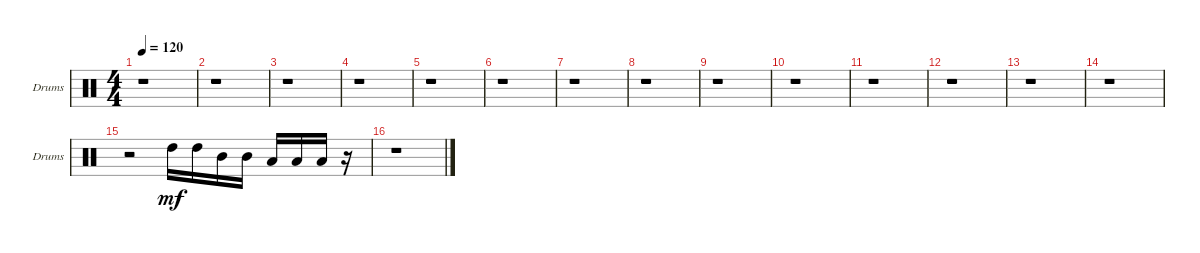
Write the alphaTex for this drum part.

\bracketExtendMode groupsimilarinstruments
\singleTrackTrackNamePolicy allsystems
\multiTrackTrackNamePolicy allsystems
\firstSystemTrackNameOrientation horizontal
\otherSystemsTrackNameOrientation horizontal
\track ("Toms" "Drums") {instrument percussion}
\staff {score}
\articulation defaults
\ts (4 4)
\tempo 120
\clef neutral
\scale
0.333333
\ks c
r.1{dy mf} |
\scale
0.333333 r.1 |
\scale
0.333333 r.1 |
\scale
0.333333 r.1 |
\scale
0.333333 r.1 |
\scale
0.333333 r.1 |
\scale
0.333333 r.1 |
\scale
0.333333 r.1 |
\scale
0.333333 r.1 |
\scale
0.333333 r.1 |
\scale
0.333333 r.1 |
\scale
0.333333 r.1 |
\scale
0.333333 r.1 |
\scale
0.333333 r.1 |
\scale
0.333333 r.2 "High Tom (hit)".16 "High Tom (hit)".16 "Mid Tom (hit)".16 "Mid Tom (hit)".16 "Low Tom (hit)".16 "Low Tom (hit)".16 "Low Tom (hit)".16 r.16 |
\scale
0.333333 r.1
